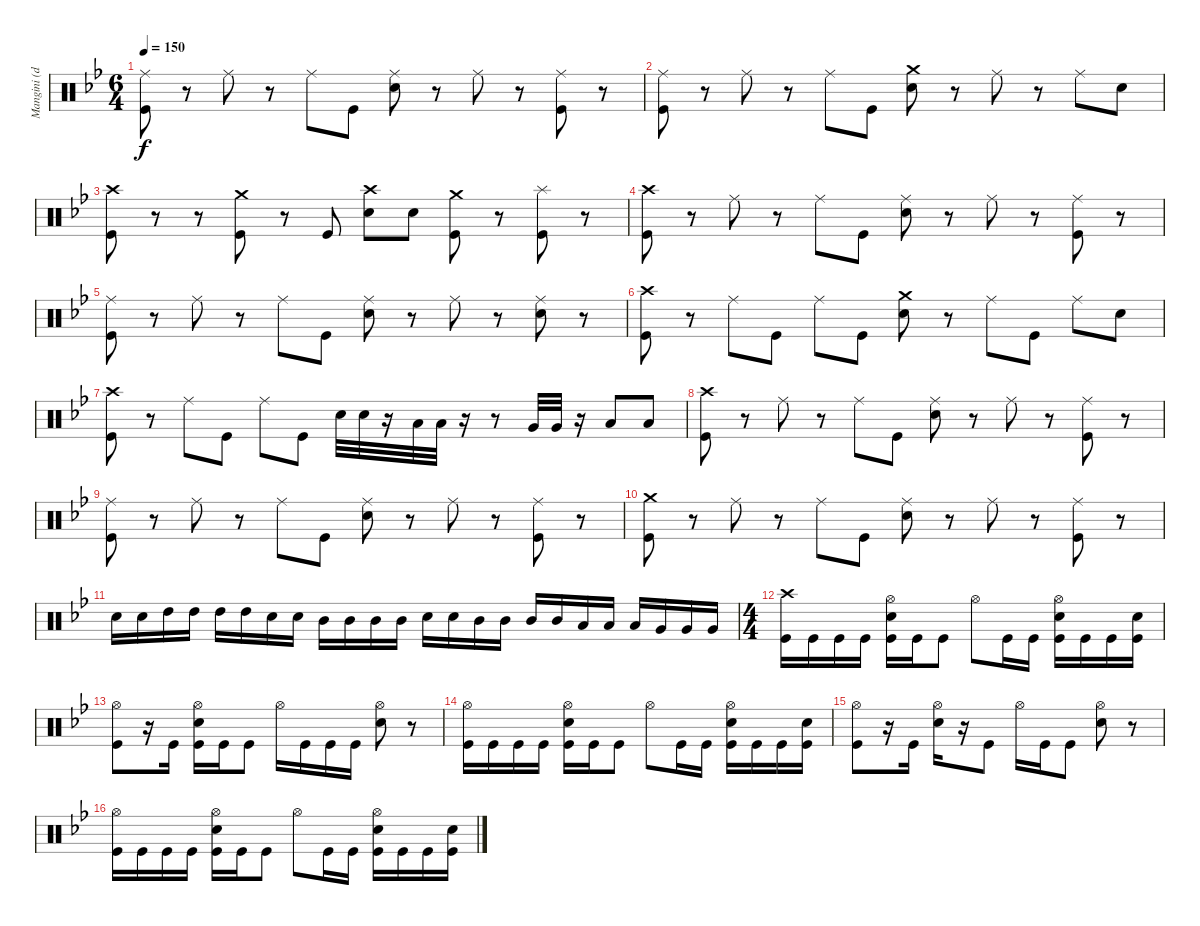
\track ("Mangini (drums)" "Mangini (d") {instrument percussion}
\staff {score}
\articulation defaults
\ts (6 4)
\tempo 150
\clef neutral
\ks gminor
("Ride (middle)" "Kick (hit)").8{dy f} r.8 "Ride (middle)".8 r.8 "Ride (middle)".8 "Kick (hit)".8 ("Ride (middle)" "Snare (hit) 2").8 r.8 "Ride (middle)".8 r.8 ("Ride (middle)" "Kick (hit)").8 r.8 |
("Ride (middle)" "Kick (hit)").8 r.8 "Ride (middle)".8 r.8 "Ride (middle)".8 "Kick (hit)".8 ("Crash medium (hit)" "Snare (hit) 2").8 r.8 "Ride (middle)".8 r.8 "Ride (middle)".8 "Snare (hit) 2".8 |
("Crash high (hit)" "Kick (hit)").8 r.8 r.8 ("Crash medium (hit)" "Kick (hit)").8 r.8 "Kick (hit)".8 ("Crash high (hit)" "Snare (hit) 2").8 "Snare (hit) 2".8 ("Crash medium (hit)" "Kick (hit)").8 r.8 ("Splash (hit)" "Kick (hit)").8 r.8 |
("Crash high (hit)" "Kick (hit)").8 r.8 "Ride (middle)".8 r.8 "Ride (middle)".8 "Kick (hit)".8 ("Ride (middle)" "Snare (hit) 2").8 r.8 "Ride (middle)".8 r.8 ("Ride (middle)" "Kick (hit)").8 r.8 |
("Ride (middle)" "Kick (hit)").8 r.8 "Ride (middle)".8 r.8 "Ride (middle)".8 "Kick (hit)".8 ("Ride (middle)" "Snare (hit) 2").8 r.8 "Ride (middle)".8 r.8 ("Ride (middle)" "Snare (hit) 2").8 r.8 |
("Crash high (hit)" "Kick (hit)").8 r.8 "Ride (middle)".8 "Kick (hit)".8 "Ride (middle)".8 "Kick (hit)".8 ("Crash medium (hit)" "Snare (hit) 2").8 r.8 "Ride (middle)".8 "Kick (hit)".8 "Ride (middle)".8 "Snare (hit) 2".8 |
("Crash high (hit)" "Kick (hit)").8 r.8 "Ride (middle)".8 "Kick (hit)".8 "Ride (middle)".8 "Kick (hit)".8 "Snare (hit) 2".32 "Snare (hit) 2".32 r.16 "Low Tom (hit)".32 "Low Tom (hit)".32 r.16 r.8 "Very Low Tom (hit)".32 "Very Low Tom (hit)".32 r.16 "Low Floor Tom (hit)".8 "Low Floor Tom (hit)".8 |
("Crash high (hit)" "Kick (hit)").8 r.8 "Ride (middle)".8 r.8 "Ride (middle)".8 "Kick (hit)".8 ("Ride (middle)" "Snare (hit) 2").8 r.8 "Ride (middle)".8 r.8 ("Ride (middle)" "Kick (hit)").8 r.8 |
("Ride (middle)" "Kick (hit)").8 r.8 "Ride (middle)".8 r.8 "Ride (middle)".8 "Kick (hit)".8 ("Ride (middle)" "Snare (hit) 2").8 r.8 "Ride (middle)".8 r.8 ("Ride (middle)" "Kick (hit)").8 r.8 |
("Crash medium (hit)" "Kick (hit)").8 r.8 "Ride (middle)".8 r.8 "Ride (middle)".8 "Kick (hit)".8 ("Ride (middle)" "Snare (hit) 2").8 r.8 "Ride (middle)".8 r.8 ("Ride (middle)" "Kick (hit)").8 r.8 |
"Snare (hit) 2".16 "Snare (hit) 2".16 "High Tom (hit)".16 "High Tom (hit)".16 "High Tom (hit)".16 "High Tom (hit)".16 "Snare (hit) 2".16 "Snare (hit) 2".16 "Mid Tom (hit)".16 "Mid Tom (hit)".16 "Mid Tom (hit)".16 "Mid Tom (hit)".16 "Snare (hit) 2".16 "Snare (hit) 2".16 "Mid Tom (hit)".16 "Mid Tom (hit)".16 "Mid Tom (hit)".16 "Mid Tom (hit)".16 "Low Tom (hit)".16 "Low Tom (hit)".16 "Low Tom (hit)".16 "Very Low Tom (hit)".16 "Very Low Tom (hit)".16 "Very Low Tom (hit)".16 |
\ts (4 4)
("Crash high (hit)" "Kick (hit)").16 "Kick (hit)".16 "Kick (hit)".16 "Kick (hit)".16 ("Hi-Hat (open)" "Snare (hit) 2" "Kick (hit)").16 "Kick (hit)".16 "Kick (hit)".8 "Hi-Hat (open)".8 "Kick (hit)".16 "Kick (hit)".16 ("Hi-Hat (open)" "Snare (hit) 2" "Kick (hit)").16 "Kick (hit)".16 "Kick (hit)".16 ("Snare (hit) 2" "Kick (hit)").16 |
("Hi-Hat (open)" "Kick (hit)").8 r.16 "Kick (hit)".16 ("Hi-Hat (open)" "Snare (hit) 2" "Kick (hit)").16 "Kick (hit)".16 "Kick (hit)".8 "Hi-Hat (open)".16 "Kick (hit)".16 "Kick (hit)".16 "Kick (hit)".16 ("Hi-Hat (open)" "Snare (hit) 2").8 r.8 |
("Hi-Hat (open)" "Kick (hit)").16 "Kick (hit)".16 "Kick (hit)".16 "Kick (hit)".16 ("Hi-Hat (open)" "Snare (hit) 2" "Kick (hit)").16 "Kick (hit)".16 "Kick (hit)".8 "Hi-Hat (open)".8 "Kick (hit)".16 "Kick (hit)".16 ("Hi-Hat (open)" "Snare (hit) 2" "Kick (hit)").16 "Kick (hit)".16 "Kick (hit)".16 ("Snare (hit) 2" "Kick (hit)").16 |
("Hi-Hat (open)" "Kick (hit)").8 r.16 "Kick (hit)".16 ("Hi-Hat (open)" "Snare (hit) 2").16 r.16 "Kick (hit)".8 "Hi-Hat (open)".16 "Kick (hit)".16 "Kick (hit)".8 ("Hi-Hat (open)" "Snare (hit) 2").8 r.8 |
("Hi-Hat (open)" "Kick (hit)").16 "Kick (hit)".16 "Kick (hit)".16 "Kick (hit)".16 ("Hi-Hat (open)" "Snare (hit) 2" "Kick (hit)").16 "Kick (hit)".16 "Kick (hit)".8 "Hi-Hat (open)".8 "Kick (hit)".16 "Kick (hit)".16 ("Hi-Hat (open)" "Snare (hit) 2" "Kick (hit)").16 "Kick (hit)".16 "Kick (hit)".16 ("Snare (hit) 2" "Kick (hit)").16
